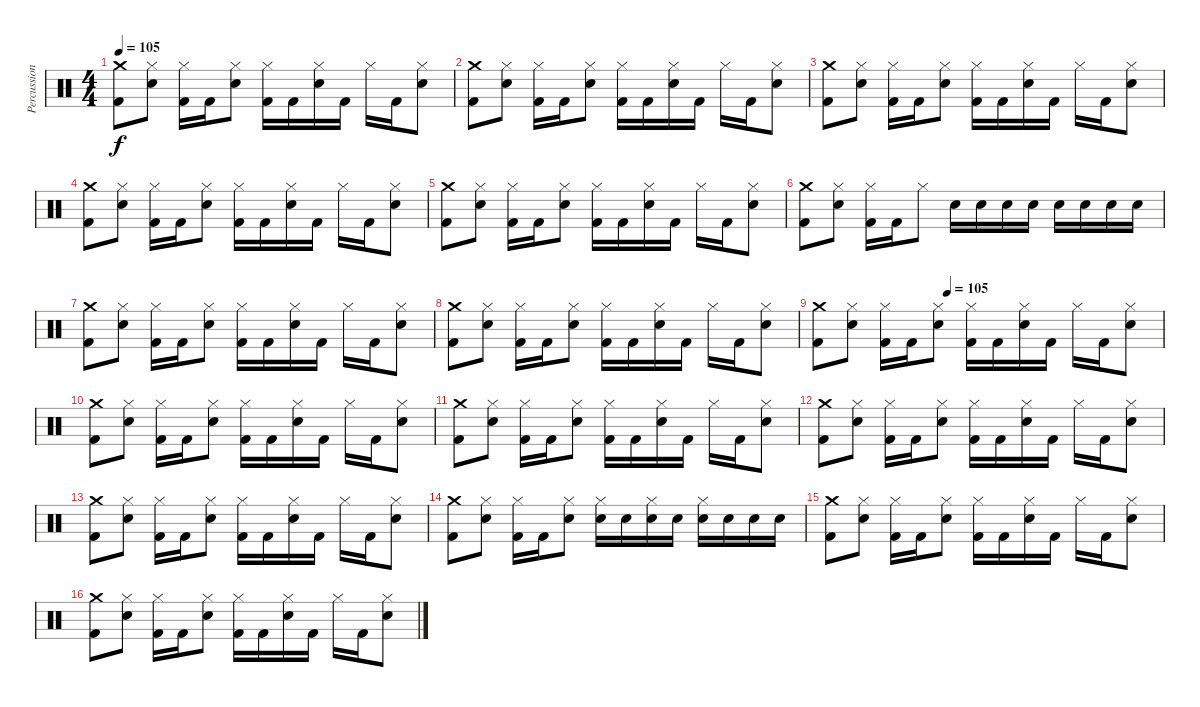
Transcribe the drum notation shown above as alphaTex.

\track ("Percussions" "Percussion") {instrument percussion}
\staff {score}
\articulation defaults
\ts (4 4)
\tempo 105
\clef neutral
\ks c
("Crash medium (hit)" "Kick (hit) 2").8{dy f} ("Hi-Hat (closed)" "Snare (hit) 2").8 ("Hi-Hat (closed)" "Kick (hit) 2").16 "Kick (hit) 2".16 ("Hi-Hat (closed)" "Snare (hit) 2").8 ("Hi-Hat (closed)" "Kick (hit) 2").16 "Kick (hit) 2".16 ("Hi-Hat (closed)" "Snare (hit) 2").16 "Kick (hit) 2".16 "Hi-Hat (closed)".16 "Kick (hit) 2".16 ("Hi-Hat (closed)" "Snare (hit) 2").8 |
("Crash medium (hit)" "Kick (hit) 2").8 ("Hi-Hat (closed)" "Snare (hit) 2").8 ("Hi-Hat (closed)" "Kick (hit) 2").16 "Kick (hit) 2".16 ("Hi-Hat (closed)" "Snare (hit) 2").8 ("Hi-Hat (closed)" "Kick (hit) 2").16 "Kick (hit) 2".16 ("Hi-Hat (closed)" "Snare (hit) 2").16 "Kick (hit) 2".16 "Hi-Hat (closed)".16 "Kick (hit) 2".16 ("Hi-Hat (closed)" "Snare (hit) 2").8 |
("Crash medium (hit)" "Kick (hit) 2").8 ("Hi-Hat (closed)" "Snare (hit) 2").8 ("Hi-Hat (closed)" "Kick (hit) 2").16 "Kick (hit) 2".16 ("Hi-Hat (closed)" "Snare (hit) 2").8 ("Hi-Hat (closed)" "Kick (hit) 2").16 "Kick (hit) 2".16 ("Hi-Hat (closed)" "Snare (hit) 2").16 "Kick (hit) 2".16 "Hi-Hat (closed)".16 "Kick (hit) 2".16 ("Hi-Hat (closed)" "Snare (hit) 2").8 |
("Crash medium (hit)" "Kick (hit) 2").8 ("Hi-Hat (closed)" "Snare (hit) 2").8 ("Hi-Hat (closed)" "Kick (hit) 2").16 "Kick (hit) 2".16 ("Hi-Hat (closed)" "Snare (hit) 2").8 ("Hi-Hat (closed)" "Kick (hit) 2").16 "Kick (hit) 2".16 ("Hi-Hat (closed)" "Snare (hit) 2").16 "Kick (hit) 2".16 "Hi-Hat (closed)".16 "Kick (hit) 2".16 ("Hi-Hat (closed)" "Snare (hit) 2").8 |
("Crash medium (hit)" "Kick (hit) 2").8 ("Hi-Hat (closed)" "Snare (hit) 2").8 ("Hi-Hat (closed)" "Kick (hit) 2").16 "Kick (hit) 2".16 ("Hi-Hat (closed)" "Snare (hit) 2").8 ("Hi-Hat (closed)" "Kick (hit) 2").16 "Kick (hit) 2".16 ("Hi-Hat (closed)" "Snare (hit) 2").16 "Kick (hit) 2".16 "Hi-Hat (closed)".16 "Kick (hit) 2".16 ("Hi-Hat (closed)" "Snare (hit) 2").8 |
("Crash medium (hit)" "Kick (hit) 2").8 ("Hi-Hat (closed)" "Snare (hit) 2").8 ("Hi-Hat (closed)" "Kick (hit) 2").16 "Kick (hit) 2".16 "Hi-Hat (closed)".8 "Snare (hit) 2".16 "Snare (hit) 2".16 "Snare (hit) 2".16 "Snare (hit) 2".16 "Snare (hit) 2".16 "Snare (hit) 2".16 "Snare (hit) 2".16 "Snare (hit) 2".16 |
("Crash medium (hit)" "Kick (hit) 2").8 ("Hi-Hat (closed)" "Snare (hit) 2").8 ("Hi-Hat (closed)" "Kick (hit) 2").16 "Kick (hit) 2".16 ("Hi-Hat (closed)" "Snare (hit) 2").8 ("Hi-Hat (closed)" "Kick (hit) 2").16 "Kick (hit) 2".16 ("Hi-Hat (closed)" "Snare (hit) 2").16 "Kick (hit) 2".16 "Hi-Hat (closed)".16 "Kick (hit) 2".16 ("Hi-Hat (closed)" "Snare (hit) 2").8 |
("Crash medium (hit)" "Kick (hit) 2").8 ("Hi-Hat (closed)" "Snare (hit) 2").8 ("Hi-Hat (closed)" "Kick (hit) 2").16 "Kick (hit) 2".16 ("Hi-Hat (closed)" "Snare (hit) 2").8 ("Hi-Hat (closed)" "Kick (hit) 2").16 "Kick (hit) 2".16 ("Hi-Hat (closed)" "Snare (hit) 2").16 "Kick (hit) 2".16 "Hi-Hat (closed)".16 "Kick (hit) 2".16 ("Hi-Hat (closed)" "Snare (hit) 2").8 |
\tempo (105 0.375)
("Crash medium (hit)" "Kick (hit) 2").8 ("Hi-Hat (closed)" "Snare (hit) 2").8 ("Hi-Hat (closed)" "Kick (hit) 2").16 "Kick (hit) 2".16 ("Hi-Hat (closed)" "Snare (hit) 2").8 ("Hi-Hat (closed)" "Kick (hit) 2").16 "Kick (hit) 2".16 ("Hi-Hat (closed)" "Snare (hit) 2").16 "Kick (hit) 2".16 "Hi-Hat (closed)".16 "Kick (hit) 2".16 ("Hi-Hat (closed)" "Snare (hit) 2").8 |
("Crash medium (hit)" "Kick (hit) 2").8 ("Hi-Hat (closed)" "Snare (hit) 2").8 ("Hi-Hat (closed)" "Kick (hit) 2").16 "Kick (hit) 2".16 ("Hi-Hat (closed)" "Snare (hit) 2").8 ("Hi-Hat (closed)" "Kick (hit) 2").16 "Kick (hit) 2".16 ("Hi-Hat (closed)" "Snare (hit) 2").16 "Kick (hit) 2".16 "Hi-Hat (closed)".16 "Kick (hit) 2".16 ("Hi-Hat (closed)" "Snare (hit) 2").8 |
("Crash medium (hit)" "Kick (hit) 2").8 ("Hi-Hat (closed)" "Snare (hit) 2").8 ("Hi-Hat (closed)" "Kick (hit) 2").16 "Kick (hit) 2".16 ("Hi-Hat (closed)" "Snare (hit) 2").8 ("Hi-Hat (closed)" "Kick (hit) 2").16 "Kick (hit) 2".16 ("Hi-Hat (closed)" "Snare (hit) 2").16 "Kick (hit) 2".16 "Hi-Hat (closed)".16 "Kick (hit) 2".16 ("Hi-Hat (closed)" "Snare (hit) 2").8 |
("Crash medium (hit)" "Kick (hit) 2").8 ("Hi-Hat (closed)" "Snare (hit) 2").8 ("Hi-Hat (closed)" "Kick (hit) 2").16 "Kick (hit) 2".16 ("Hi-Hat (closed)" "Snare (hit) 2").8 ("Hi-Hat (closed)" "Kick (hit) 2").16 "Kick (hit) 2".16 ("Hi-Hat (closed)" "Snare (hit) 2").16 "Kick (hit) 2".16 "Hi-Hat (closed)".16 "Kick (hit) 2".16 ("Hi-Hat (closed)" "Snare (hit) 2").8 |
("Crash medium (hit)" "Kick (hit) 2").8 ("Hi-Hat (closed)" "Snare (hit) 2").8 ("Hi-Hat (closed)" "Kick (hit) 2").16 "Kick (hit) 2".16 ("Hi-Hat (closed)" "Snare (hit) 2").8 ("Hi-Hat (closed)" "Kick (hit) 2").16 "Kick (hit) 2".16 ("Hi-Hat (closed)" "Snare (hit) 2").16 "Kick (hit) 2".16 "Hi-Hat (closed)".16 "Kick (hit) 2".16 ("Hi-Hat (closed)" "Snare (hit) 2").8 |
("Crash medium (hit)" "Kick (hit) 2").8 ("Hi-Hat (closed)" "Snare (hit) 2").8 ("Hi-Hat (closed)" "Kick (hit) 2").16 "Kick (hit) 2".16 ("Hi-Hat (closed)" "Snare (hit) 2").8 ("Hi-Hat (closed)" "Snare (hit) 2").16 "Snare (hit) 2".16 ("Hi-Hat (closed)" "Snare (hit) 2").16 "Snare (hit) 2".16 ("Hi-Hat (closed)" "Snare (hit) 2").16 "Snare (hit) 2".16 "Snare (hit) 2".16 "Snare (hit) 2".16 |
("Crash medium (hit)" "Kick (hit) 2").8 ("Hi-Hat (closed)" "Snare (hit) 2").8 ("Hi-Hat (closed)" "Kick (hit) 2").16 "Kick (hit) 2".16 ("Hi-Hat (closed)" "Snare (hit) 2").8 ("Hi-Hat (closed)" "Kick (hit) 2").16 "Kick (hit) 2".16 ("Hi-Hat (closed)" "Snare (hit) 2").16 "Kick (hit) 2".16 "Hi-Hat (closed)".16 "Kick (hit) 2".16 ("Hi-Hat (closed)" "Snare (hit) 2").8 |
("Crash medium (hit)" "Kick (hit) 2").8 ("Hi-Hat (closed)" "Snare (hit) 2").8 ("Hi-Hat (closed)" "Kick (hit) 2").16 "Kick (hit) 2".16 ("Hi-Hat (closed)" "Snare (hit) 2").8 ("Hi-Hat (closed)" "Kick (hit) 2").16 "Kick (hit) 2".16 ("Hi-Hat (closed)" "Snare (hit) 2").16 "Kick (hit) 2".16 "Hi-Hat (closed)".16 "Kick (hit) 2".16 ("Hi-Hat (closed)" "Snare (hit) 2").8
